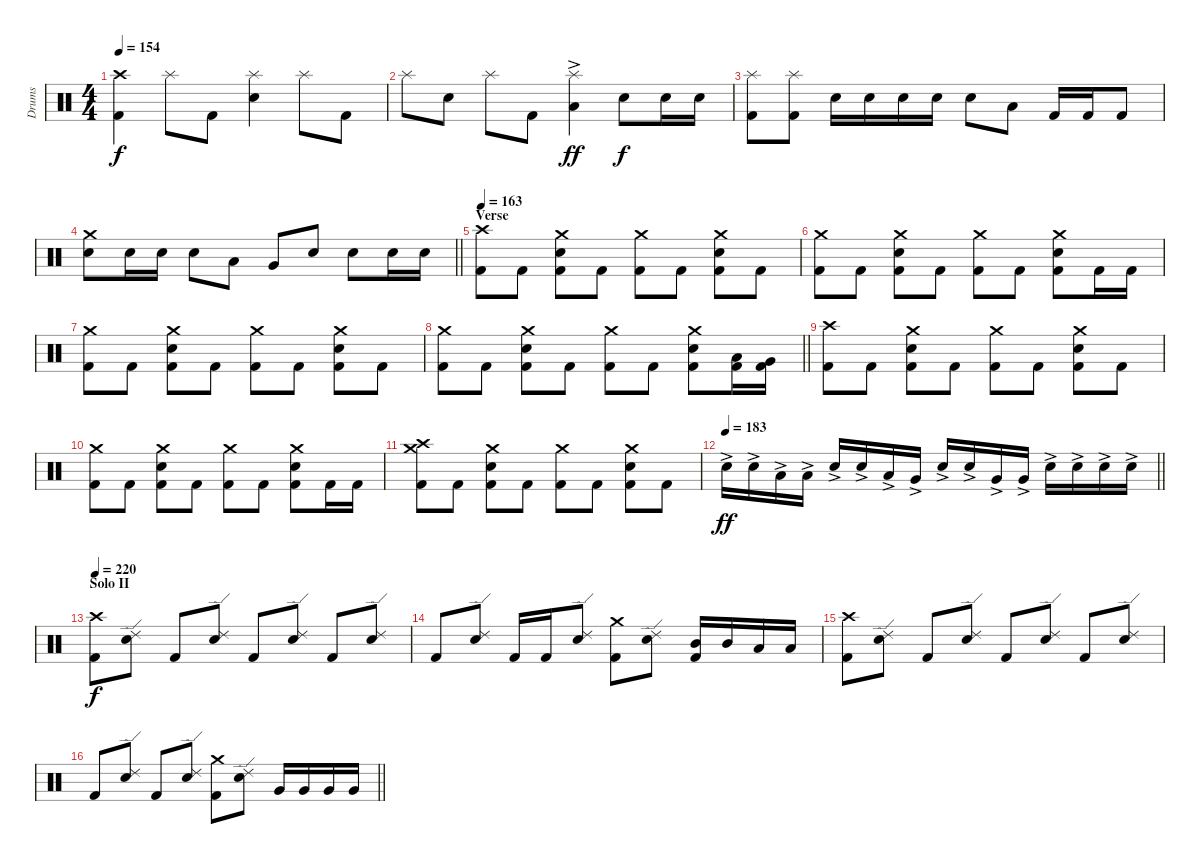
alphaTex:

\track ("Drums" "Drums") {instrument percussion}
\staff {score}
\articulation defaults
\ts (4 4)
\section ("" "")
\tempo 154
\clef neutral
\ks c
("Kick (hit) 2" "Crash high (hit)").4{dy f} "Splash (hit)".8 "Kick (hit) 2".8 ("Snare (hit) 2" "Splash (hit)").4 "Splash (hit)".8 "Kick (hit) 2".8 |
"Splash (hit)".8 "Snare (hit) 2".8 "Splash (hit)".8 "Kick (hit) 2".8 ("Low Tom (hit)"{ac} "Splash (hit)").4{dy ff} "Snare (hit) 2".8{dy f} "Snare (hit) 2".16 "Snare (hit) 2".16 |
("Kick (hit) 2" "Splash (hit)").8 ("Kick (hit) 2" "Splash (hit)").8 "Snare (hit) 2".16 "Snare (hit) 2".16 "Snare (hit) 2".16 "Snare (hit) 2".16 "Snare (hit) 2".8 "Low Tom (hit)".8 "Kick (hit) 2".16 "Kick (hit) 2".16 "Kick (hit) 2".8 |
\barLineRight lightlight
("Snare (hit) 2" "Crash medium (hit)").8 "Snare (hit) 2".16 "Snare (hit) 2".16 "Snare (hit) 2".8 "Low Tom (hit)".8 "Very Low Tom (hit)".8 "Snare (hit) 2".8 "Snare (hit) 2".8 "Snare (hit) 2".16 "Snare (hit) 2".16 |
\section ("" "Verse")
\tempo 163
("Kick (hit) 2" "Crash high (hit)").8 "Kick (hit) 2".8 ("Kick (hit) 2" "Snare (hit) 2" "Crash medium (hit)").8 "Kick (hit) 2".8 ("Kick (hit) 2" "Crash medium (hit)").8 "Kick (hit) 2".8 ("Kick (hit) 2" "Snare (hit) 2" "Crash medium (hit)").8 "Kick (hit) 2".8 |
("Kick (hit) 2" "Crash medium (hit)").8 "Kick (hit) 2".8 ("Kick (hit) 2" "Snare (hit) 2" "Crash medium (hit)").8 "Kick (hit) 2".8 ("Kick (hit) 2" "Crash medium (hit)").8 "Kick (hit) 2".8 ("Kick (hit) 2" "Snare (hit) 2" "Crash medium (hit)").8 "Kick (hit) 2".16 "Kick (hit) 2".16 |
("Kick (hit) 2" "Crash medium (hit)").8 "Kick (hit) 2".8 ("Kick (hit) 2" "Snare (hit) 2" "Crash medium (hit)").8 "Kick (hit) 2".8 ("Kick (hit) 2" "Crash medium (hit)").8 "Kick (hit) 2".8 ("Kick (hit) 2" "Snare (hit) 2" "Crash medium (hit)").8 "Kick (hit) 2".8 |
\barLineRight lightlight
("Kick (hit) 2" "Crash medium (hit)").8 "Kick (hit) 2".8 ("Kick (hit) 2" "Snare (hit) 2" "Crash medium (hit)").8 "Kick (hit) 2".8 ("Kick (hit) 2" "Crash medium (hit)").8 "Kick (hit) 2".8 ("Kick (hit) 2" "Snare (hit) 2" "Crash medium (hit)").8 ("Kick (hit) 2" "Low Tom (hit)").16 ("Kick (hit) 2" "Very Low Tom (hit)").16 |
\section ("" "")
("Kick (hit) 2" "Crash high (hit)").8 "Kick (hit) 2".8 ("Kick (hit) 2" "Snare (hit) 2" "Crash medium (hit)").8 "Kick (hit) 2".8 ("Kick (hit) 2" "Crash medium (hit)").8 "Kick (hit) 2".8 ("Kick (hit) 2" "Snare (hit) 2" "Crash medium (hit)").8 "Kick (hit) 2".8 |
("Kick (hit) 2" "Crash medium (hit)").8 "Kick (hit) 2".8 ("Kick (hit) 2" "Snare (hit) 2" "Crash medium (hit)").8 "Kick (hit) 2".8 ("Kick (hit) 2" "Crash medium (hit)").8 "Kick (hit) 2".8 ("Kick (hit) 2" "Snare (hit) 2" "Crash medium (hit)").8 "Kick (hit) 2".16 "Kick (hit) 2".16 |
("Kick (hit) 2" "Crash medium (hit)" "Crash high (hit)").8 "Kick (hit) 2".8 ("Kick (hit) 2" "Snare (hit) 2" "Crash medium (hit)").8 "Kick (hit) 2".8 ("Kick (hit) 2" "Crash medium (hit)").8 "Kick (hit) 2".8 ("Kick (hit) 2" "Snare (hit) 2" "Crash medium (hit)").8 "Kick (hit) 2".8 |
\tempo 183
\barLineRight lightlight "Snare (hit) 2"{ac}.16{dy ff} "Snare (hit) 2"{ac}.16 "Low Tom (hit)"{ac}.16 "Low Tom (hit)"{ac}.16 "Snare (hit) 2"{ac}.16 "Snare (hit) 2"{ac}.16 "Low Tom (hit)"{ac}.16 "Very Low Tom (hit)"{ac}.16 "Snare (hit) 2"{ac}.16 "Snare (hit) 2"{ac}.16 "Very Low Tom (hit)"{ac}.16 "Very Low Tom (hit)"{ac}.16 "Snare (hit) 2"{ac}.16 "Snare (hit) 2"{ac}.16 "Snare (hit) 2"{ac}.16 "Snare (hit) 2"{ac}.16
|
\section ("" "Solo II")
\tempo 220
("Kick (hit) 2" "Crash high (hit)").8{dy f} ("Snare (hit) 2" "Ride (edge) 2").8 "Kick (hit) 2".8 ("Snare (hit) 2" "Ride (edge) 2").8 "Kick (hit) 2".8 ("Snare (hit) 2" "Ride (edge) 2").8 "Kick (hit) 2".8 ("Snare (hit) 2" "Ride (edge) 2").8 |
"Kick (hit) 2".8 ("Snare (hit) 2" "Ride (edge) 2").8 "Kick (hit) 2".16 "Kick (hit) 2".16 ("Snare (hit) 2" "Ride (edge) 2").8 ("Kick (hit) 2" "Crash medium (hit)").8 ("Snare (hit) 2" "Ride (edge) 2").8 ("Kick (hit) 2" "Mid Tom (hit)").16 "Mid Tom (hit)".16 "Low Tom (hit)".16 "Low Tom (hit)".16 |
("Kick (hit) 2" "Crash high (hit)").8 ("Snare (hit) 2" "Ride (edge) 2").8 "Kick (hit) 2".8 ("Snare (hit) 2" "Ride (edge) 2").8 "Kick (hit) 2".8 ("Snare (hit) 2" "Ride (edge) 2").8 "Kick (hit) 2".8 ("Snare (hit) 2" "Ride (edge) 2").8 |
\barLineRight lightlight "Kick (hit) 2".8
("Snare (hit) 2" "Ride (edge) 2").8 "Kick (hit) 2".8 ("Snare (hit) 2" "Ride (edge) 2").8 ("Kick (hit) 2" "Crash medium (hit)").8 ("Snare (hit) 2" "Ride (edge) 2").8 "Very Low Tom (hit)".16 "Very Low Tom (hit)".16 "Very Low Tom (hit)".16 "Very Low Tom (hit)".16
